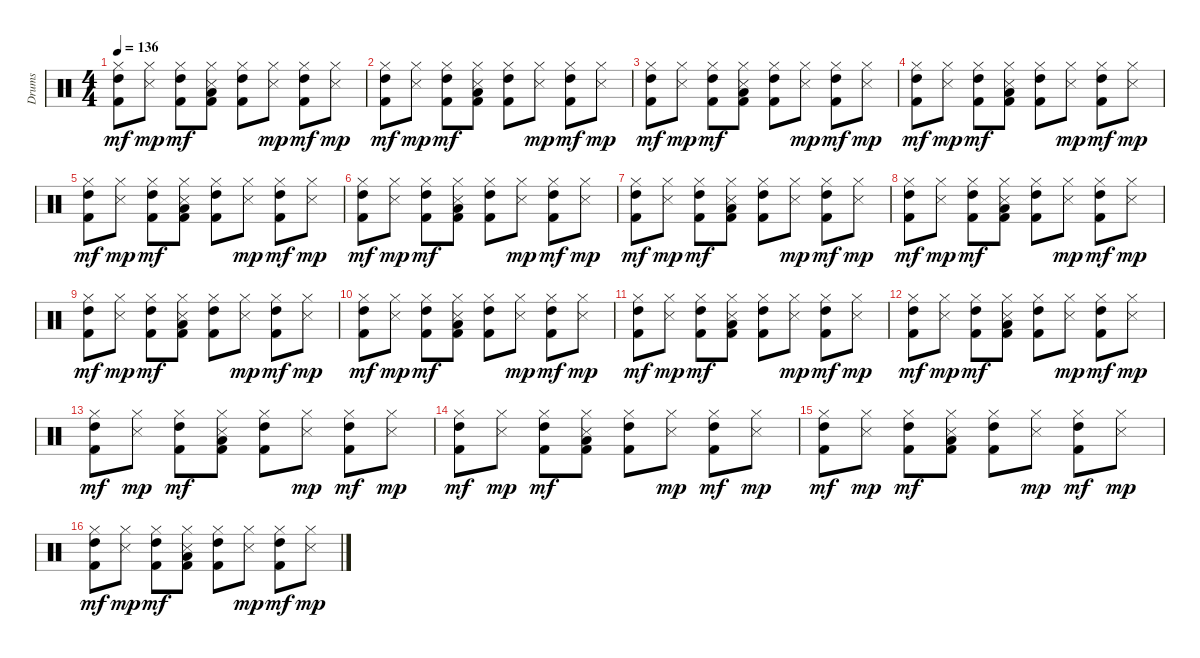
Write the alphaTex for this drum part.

\track ("Drums" "Drums") {instrument percussion}
\staff {score}
\articulation defaults
\ts (4 4)
\tempo 136
\clef neutral
\ks c
("Hi-Hat (closed)" "High Tom (hit)" "Kick (hit) 2").8{dy mf} ("Hi-Hat (closed)" "Metronome (hit)").8{dy mp} ("Hi-Hat (closed)" "High Tom (hit)" "Kick (hit) 2").8{dy mf} ("Hi-Hat (closed)" "Metronome (hit)" "Low Floor Tom (hit)" "Kick (hit) 2").8 ("Hi-Hat (closed)" "High Tom (hit)" "Kick (hit) 2").8 ("Hi-Hat (closed)" "Metronome (hit)").8{dy mp} ("Hi-Hat (closed)" "High Tom (hit)" "Kick (hit) 2").8{dy mf} ("Hi-Hat (closed)" "Metronome (hit)").8{dy mp} |
("Hi-Hat (closed)" "High Tom (hit)" "Kick (hit) 2").8{dy mf} ("Hi-Hat (closed)" "Metronome (hit)").8{dy mp} ("Hi-Hat (closed)" "High Tom (hit)" "Kick (hit) 2").8{dy mf} ("Hi-Hat (closed)" "Metronome (hit)" "Low Floor Tom (hit)" "Kick (hit) 2").8 ("Hi-Hat (closed)" "High Tom (hit)" "Kick (hit) 2").8 ("Hi-Hat (closed)" "Metronome (hit)").8{dy mp} ("Hi-Hat (closed)" "High Tom (hit)" "Kick (hit) 2").8{dy mf} ("Hi-Hat (closed)" "Metronome (hit)").8{dy mp} |
("Hi-Hat (closed)" "High Tom (hit)" "Kick (hit) 2").8{dy mf} ("Hi-Hat (closed)" "Metronome (hit)").8{dy mp} ("Hi-Hat (closed)" "High Tom (hit)" "Kick (hit) 2").8{dy mf} ("Hi-Hat (closed)" "Metronome (hit)" "Low Floor Tom (hit)" "Kick (hit) 2").8 ("Hi-Hat (closed)" "High Tom (hit)" "Kick (hit) 2").8 ("Hi-Hat (closed)" "Metronome (hit)").8{dy mp} ("Hi-Hat (closed)" "High Tom (hit)" "Kick (hit) 2").8{dy mf} ("Hi-Hat (closed)" "Metronome (hit)").8{dy mp} |
("Hi-Hat (closed)" "High Tom (hit)" "Kick (hit) 2").8{dy mf} ("Hi-Hat (closed)" "Metronome (hit)").8{dy mp} ("Hi-Hat (closed)" "High Tom (hit)" "Kick (hit) 2").8{dy mf} ("Hi-Hat (closed)" "Metronome (hit)" "Low Floor Tom (hit)" "Kick (hit) 2").8 ("Hi-Hat (closed)" "High Tom (hit)" "Kick (hit) 2").8 ("Hi-Hat (closed)" "Metronome (hit)").8{dy mp} ("Hi-Hat (closed)" "High Tom (hit)" "Kick (hit) 2").8{dy mf} ("Hi-Hat (closed)" "Metronome (hit)").8{dy mp} |
("Hi-Hat (closed)" "High Tom (hit)" "Kick (hit) 2").8{dy mf} ("Hi-Hat (closed)" "Metronome (hit)").8{dy mp} ("Hi-Hat (closed)" "High Tom (hit)" "Kick (hit) 2").8{dy mf} ("Hi-Hat (closed)" "Metronome (hit)" "Low Floor Tom (hit)" "Kick (hit) 2").8 ("Hi-Hat (closed)" "High Tom (hit)" "Kick (hit) 2").8 ("Hi-Hat (closed)" "Metronome (hit)").8{dy mp} ("Hi-Hat (closed)" "High Tom (hit)" "Kick (hit) 2").8{dy mf} ("Hi-Hat (closed)" "Metronome (hit)").8{dy mp} |
("Hi-Hat (closed)" "High Tom (hit)" "Kick (hit) 2").8{dy mf} ("Hi-Hat (closed)" "Metronome (hit)").8{dy mp} ("Hi-Hat (closed)" "High Tom (hit)" "Kick (hit) 2").8{dy mf} ("Hi-Hat (closed)" "Metronome (hit)" "Low Floor Tom (hit)" "Kick (hit) 2").8 ("Hi-Hat (closed)" "High Tom (hit)" "Kick (hit) 2").8 ("Hi-Hat (closed)" "Metronome (hit)").8{dy mp} ("Hi-Hat (closed)" "High Tom (hit)" "Kick (hit) 2").8{dy mf} ("Hi-Hat (closed)" "Metronome (hit)").8{dy mp} |
("Hi-Hat (closed)" "High Tom (hit)" "Kick (hit) 2").8{dy mf} ("Hi-Hat (closed)" "Metronome (hit)").8{dy mp} ("Hi-Hat (closed)" "High Tom (hit)" "Kick (hit) 2").8{dy mf} ("Hi-Hat (closed)" "Metronome (hit)" "Low Floor Tom (hit)" "Kick (hit) 2").8 ("Hi-Hat (closed)" "High Tom (hit)" "Kick (hit) 2").8 ("Hi-Hat (closed)" "Metronome (hit)").8{dy mp} ("Hi-Hat (closed)" "High Tom (hit)" "Kick (hit) 2").8{dy mf} ("Hi-Hat (closed)" "Metronome (hit)").8{dy mp} |
("Hi-Hat (closed)" "High Tom (hit)" "Kick (hit) 2").8{dy mf} ("Hi-Hat (closed)" "Metronome (hit)").8{dy mp} ("Hi-Hat (closed)" "High Tom (hit)" "Kick (hit) 2").8{dy mf} ("Hi-Hat (closed)" "Metronome (hit)" "Low Floor Tom (hit)" "Kick (hit) 2").8 ("Hi-Hat (closed)" "High Tom (hit)" "Kick (hit) 2").8 ("Hi-Hat (closed)" "Metronome (hit)").8{dy mp} ("Hi-Hat (closed)" "High Tom (hit)" "Kick (hit) 2").8{dy mf} ("Hi-Hat (closed)" "Metronome (hit)").8{dy mp} |
("Hi-Hat (closed)" "High Tom (hit)" "Kick (hit) 2").8{dy mf} ("Hi-Hat (closed)" "Metronome (hit)").8{dy mp} ("Hi-Hat (closed)" "High Tom (hit)" "Kick (hit) 2").8{dy mf} ("Hi-Hat (closed)" "Metronome (hit)" "Low Floor Tom (hit)" "Kick (hit) 2").8 ("Hi-Hat (closed)" "High Tom (hit)" "Kick (hit) 2").8 ("Hi-Hat (closed)" "Metronome (hit)").8{dy mp} ("Hi-Hat (closed)" "High Tom (hit)" "Kick (hit) 2").8{dy mf} ("Hi-Hat (closed)" "Metronome (hit)").8{dy mp} |
("Hi-Hat (closed)" "High Tom (hit)" "Kick (hit) 2").8{dy mf} ("Hi-Hat (closed)" "Metronome (hit)").8{dy mp} ("Hi-Hat (closed)" "High Tom (hit)" "Kick (hit) 2").8{dy mf} ("Hi-Hat (closed)" "Metronome (hit)" "Low Floor Tom (hit)" "Kick (hit) 2").8 ("Hi-Hat (closed)" "High Tom (hit)" "Kick (hit) 2").8 ("Hi-Hat (closed)" "Metronome (hit)").8{dy mp} ("Hi-Hat (closed)" "High Tom (hit)" "Kick (hit) 2").8{dy mf} ("Hi-Hat (closed)" "Metronome (hit)").8{dy mp} |
("Hi-Hat (closed)" "High Tom (hit)" "Kick (hit) 2").8{dy mf} ("Hi-Hat (closed)" "Metronome (hit)").8{dy mp} ("Hi-Hat (closed)" "High Tom (hit)" "Kick (hit) 2").8{dy mf} ("Hi-Hat (closed)" "Metronome (hit)" "Low Floor Tom (hit)" "Kick (hit) 2").8 ("Hi-Hat (closed)" "High Tom (hit)" "Kick (hit) 2").8 ("Hi-Hat (closed)" "Metronome (hit)").8{dy mp} ("Hi-Hat (closed)" "High Tom (hit)" "Kick (hit) 2").8{dy mf} ("Hi-Hat (closed)" "Metronome (hit)").8{dy mp} |
("Hi-Hat (closed)" "High Tom (hit)" "Kick (hit) 2").8{dy mf} ("Hi-Hat (closed)" "Metronome (hit)").8{dy mp} ("Hi-Hat (closed)" "High Tom (hit)" "Kick (hit) 2").8{dy mf} ("Hi-Hat (closed)" "Metronome (hit)" "Low Floor Tom (hit)" "Kick (hit) 2").8 ("Hi-Hat (closed)" "High Tom (hit)" "Kick (hit) 2").8 ("Hi-Hat (closed)" "Metronome (hit)").8{dy mp} ("Hi-Hat (closed)" "High Tom (hit)" "Kick (hit) 2").8{dy mf} ("Hi-Hat (closed)" "Metronome (hit)").8{dy mp} |
("Hi-Hat (closed)" "High Tom (hit)" "Kick (hit) 2").8{dy mf} ("Hi-Hat (closed)" "Metronome (hit)").8{dy mp} ("Hi-Hat (closed)" "High Tom (hit)" "Kick (hit) 2").8{dy mf} ("Hi-Hat (closed)" "Metronome (hit)" "Low Floor Tom (hit)" "Kick (hit) 2").8 ("Hi-Hat (closed)" "High Tom (hit)" "Kick (hit) 2").8 ("Hi-Hat (closed)" "Metronome (hit)").8{dy mp} ("Hi-Hat (closed)" "High Tom (hit)" "Kick (hit) 2").8{dy mf} ("Hi-Hat (closed)" "Metronome (hit)").8{dy mp} |
("Hi-Hat (closed)" "High Tom (hit)" "Kick (hit) 2").8{dy mf} ("Hi-Hat (closed)" "Metronome (hit)").8{dy mp} ("Hi-Hat (closed)" "High Tom (hit)" "Kick (hit) 2").8{dy mf} ("Hi-Hat (closed)" "Metronome (hit)" "Low Floor Tom (hit)" "Kick (hit) 2").8 ("Hi-Hat (closed)" "High Tom (hit)" "Kick (hit) 2").8 ("Hi-Hat (closed)" "Metronome (hit)").8{dy mp} ("Hi-Hat (closed)" "High Tom (hit)" "Kick (hit) 2").8{dy mf} ("Hi-Hat (closed)" "Metronome (hit)").8{dy mp} |
("Hi-Hat (closed)" "High Tom (hit)" "Kick (hit) 2").8{dy mf} ("Hi-Hat (closed)" "Metronome (hit)").8{dy mp} ("Hi-Hat (closed)" "High Tom (hit)" "Kick (hit) 2").8{dy mf} ("Hi-Hat (closed)" "Metronome (hit)" "Low Floor Tom (hit)" "Kick (hit) 2").8 ("Hi-Hat (closed)" "High Tom (hit)" "Kick (hit) 2").8 ("Hi-Hat (closed)" "Metronome (hit)").8{dy mp} ("Hi-Hat (closed)" "High Tom (hit)" "Kick (hit) 2").8{dy mf} ("Hi-Hat (closed)" "Metronome (hit)").8{dy mp} |
("Hi-Hat (closed)" "High Tom (hit)" "Kick (hit) 2").8{dy mf} ("Hi-Hat (closed)" "Metronome (hit)").8{dy mp} ("Hi-Hat (closed)" "High Tom (hit)" "Kick (hit) 2").8{dy mf} ("Hi-Hat (closed)" "Metronome (hit)" "Low Floor Tom (hit)" "Kick (hit) 2").8 ("Hi-Hat (closed)" "High Tom (hit)" "Kick (hit) 2").8 ("Hi-Hat (closed)" "Metronome (hit)").8{dy mp} ("Hi-Hat (closed)" "High Tom (hit)" "Kick (hit) 2").8{dy mf} ("Hi-Hat (closed)" "Metronome (hit)").8{dy mp}
